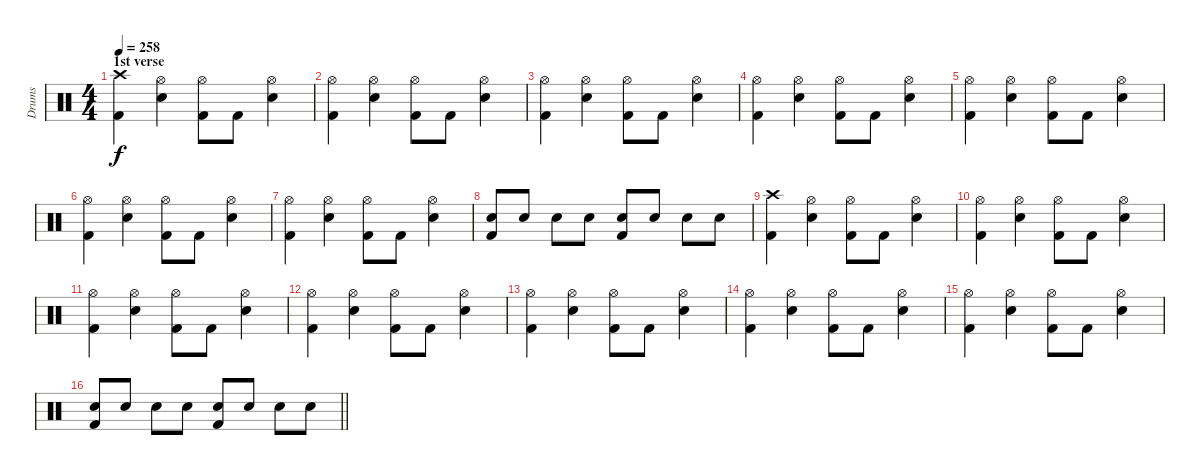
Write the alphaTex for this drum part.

\track ("Drums" "Drums") {instrument percussion}
\staff {score}
\articulation defaults
\ts (4 4)
\section ("" "1st verse")
\tempo 258
\clef neutral
\ks c
("Crash high (hit)" "Kick (hit) 2").4{dy f} ("Hi-Hat (open)" "Electric Snare (hit)").4 ("Hi-Hat (open)" "Kick (hit) 2").8 "Kick (hit) 2".8 ("Hi-Hat (open)" "Electric Snare (hit)").4 |
("Hi-Hat (open)" "Kick (hit) 2").4 ("Hi-Hat (open)" "Electric Snare (hit)").4 ("Hi-Hat (open)" "Kick (hit) 2").8 "Kick (hit) 2".8 ("Hi-Hat (open)" "Electric Snare (hit)").4 |
("Hi-Hat (open)" "Kick (hit) 2").4 ("Hi-Hat (open)" "Electric Snare (hit)").4 ("Hi-Hat (open)" "Kick (hit) 2").8 "Kick (hit) 2".8 ("Hi-Hat (open)" "Electric Snare (hit)").4 |
("Hi-Hat (open)" "Kick (hit) 2").4 ("Hi-Hat (open)" "Electric Snare (hit)").4 ("Hi-Hat (open)" "Kick (hit) 2").8 "Kick (hit) 2".8 ("Hi-Hat (open)" "Electric Snare (hit)").4 |
("Hi-Hat (open)" "Kick (hit) 2").4 ("Hi-Hat (open)" "Electric Snare (hit)").4 ("Hi-Hat (open)" "Kick (hit) 2").8 "Kick (hit) 2".8 ("Hi-Hat (open)" "Electric Snare (hit)").4 |
("Hi-Hat (open)" "Kick (hit) 2").4 ("Hi-Hat (open)" "Electric Snare (hit)").4 ("Hi-Hat (open)" "Kick (hit) 2").8 "Kick (hit) 2".8 ("Hi-Hat (open)" "Electric Snare (hit)").4 |
("Hi-Hat (open)" "Kick (hit) 2").4 ("Hi-Hat (open)" "Electric Snare (hit)").4 ("Hi-Hat (open)" "Kick (hit) 2").8 "Kick (hit) 2".8 ("Hi-Hat (open)" "Electric Snare (hit)").4 |
("Electric Snare (hit)" "Kick (hit) 2").8 "Electric Snare (hit)".8 "Electric Snare (hit)".8 "Electric Snare (hit)".8 ("Electric Snare (hit)" "Kick (hit) 2").8 "Electric Snare (hit)".8 "Electric Snare (hit)".8 "Electric Snare (hit)".8 |
("Crash high (hit)" "Kick (hit) 2").4 ("Hi-Hat (open)" "Electric Snare (hit)").4 ("Hi-Hat (open)" "Kick (hit) 2").8 "Kick (hit) 2".8 ("Hi-Hat (open)" "Electric Snare (hit)").4 |
("Hi-Hat (open)" "Kick (hit) 2").4 ("Hi-Hat (open)" "Electric Snare (hit)").4 ("Hi-Hat (open)" "Kick (hit) 2").8 "Kick (hit) 2".8 ("Hi-Hat (open)" "Electric Snare (hit)").4 |
("Hi-Hat (open)" "Kick (hit) 2").4 ("Hi-Hat (open)" "Electric Snare (hit)").4 ("Hi-Hat (open)" "Kick (hit) 2").8 "Kick (hit) 2".8 ("Hi-Hat (open)" "Electric Snare (hit)").4 |
("Hi-Hat (open)" "Kick (hit) 2").4 ("Hi-Hat (open)" "Electric Snare (hit)").4 ("Hi-Hat (open)" "Kick (hit) 2").8 "Kick (hit) 2".8 ("Hi-Hat (open)" "Electric Snare (hit)").4 |
("Hi-Hat (open)" "Kick (hit) 2").4 ("Hi-Hat (open)" "Electric Snare (hit)").4 ("Hi-Hat (open)" "Kick (hit) 2").8 "Kick (hit) 2".8 ("Hi-Hat (open)" "Electric Snare (hit)").4 |
("Hi-Hat (open)" "Kick (hit) 2").4 ("Hi-Hat (open)" "Electric Snare (hit)").4 ("Hi-Hat (open)" "Kick (hit) 2").8 "Kick (hit) 2".8 ("Hi-Hat (open)" "Electric Snare (hit)").4 |
("Hi-Hat (open)" "Kick (hit) 2").4 ("Hi-Hat (open)" "Electric Snare (hit)").4 ("Hi-Hat (open)" "Kick (hit) 2").8 "Kick (hit) 2".8 ("Hi-Hat (open)" "Electric Snare (hit)").4 |
\barLineRight lightlight
("Electric Snare (hit)" "Kick (hit) 2").8 "Electric Snare (hit)".8 "Electric Snare (hit)".8 "Electric Snare (hit)".8 ("Electric Snare (hit)" "Kick (hit) 2").8 "Electric Snare (hit)".8 "Electric Snare (hit)".8 "Electric Snare (hit)".8
